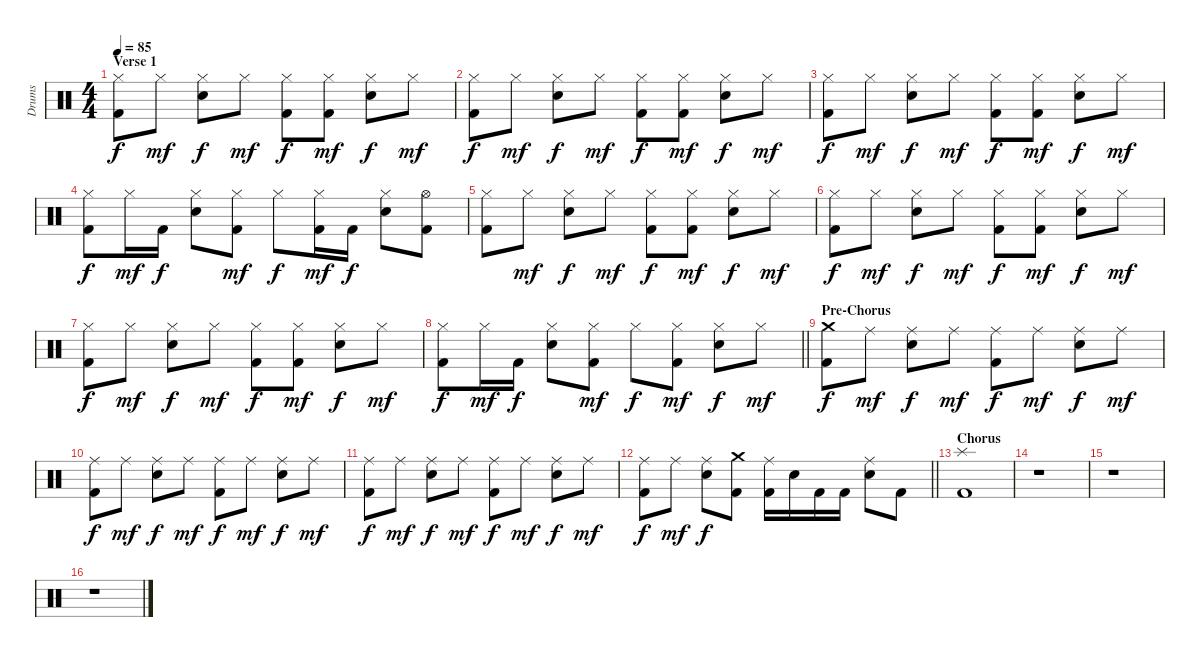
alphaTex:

\track ("Drums" "Drums") {instrument percussion}
\staff {score}
\articulation defaults
\ts (4 4)
\section ("" "Verse 1")
\tempo 85
\clef neutral
\ks c
("Hi-Hat (closed)" "Kick (hit) 2").8{dy f} "Hi-Hat (closed)".8{dy mf} ("Hi-Hat (closed)" "Snare (hit) 2").8{dy f} "Hi-Hat (closed)".8{dy mf} ("Hi-Hat (closed)" "Kick (hit) 2").8{dy f} ("Hi-Hat (closed)" "Kick (hit) 2").8{dy mf} ("Hi-Hat (closed)" "Snare (hit) 2").8{dy f} "Hi-Hat (closed)".8{dy mf} |
("Hi-Hat (closed)" "Kick (hit) 2").8{dy f} "Hi-Hat (closed)".8{dy mf} ("Hi-Hat (closed)" "Snare (hit) 2").8{dy f} "Hi-Hat (closed)".8{dy mf} ("Hi-Hat (closed)" "Kick (hit) 2").8{dy f} ("Hi-Hat (closed)" "Kick (hit) 2").8{dy mf} ("Hi-Hat (closed)" "Snare (hit) 2").8{dy f} "Hi-Hat (closed)".8{dy mf} |
("Hi-Hat (closed)" "Kick (hit) 2").8{dy f} "Hi-Hat (closed)".8{dy mf} ("Hi-Hat (closed)" "Snare (hit) 2").8{dy f} "Hi-Hat (closed)".8{dy mf} ("Hi-Hat (closed)" "Kick (hit) 2").8{dy f} ("Hi-Hat (closed)" "Kick (hit) 2").8{dy mf} ("Hi-Hat (closed)" "Snare (hit) 2").8{dy f} "Hi-Hat (closed)".8{dy mf} |
("Hi-Hat (closed)" "Kick (hit) 2").8{dy f} "Hi-Hat (closed)".16{dy mf} "Kick (hit) 2".16{dy f} ("Hi-Hat (closed)" "Snare (hit) 2").8 ("Hi-Hat (closed)" "Kick (hit) 2").8{dy mf} "Hi-Hat (closed)".8{dy f} ("Hi-Hat (closed)" "Kick (hit) 2").16{dy mf} "Kick (hit) 2".16{dy f} ("Hi-Hat (closed)" "Snare (hit) 2").8 ("Hi-Hat (open)" "Kick (hit) 2").8 |
("Hi-Hat (closed)" "Kick (hit) 2").8 "Hi-Hat (closed)".8{dy mf} ("Hi-Hat (closed)" "Snare (hit) 2").8{dy f} "Hi-Hat (closed)".8{dy mf} ("Hi-Hat (closed)" "Kick (hit) 2").8{dy f} ("Hi-Hat (closed)" "Kick (hit) 2").8{dy mf} ("Hi-Hat (closed)" "Snare (hit) 2").8{dy f} "Hi-Hat (closed)".8{dy mf} |
("Hi-Hat (closed)" "Kick (hit) 2").8{dy f} "Hi-Hat (closed)".8{dy mf} ("Hi-Hat (closed)" "Snare (hit) 2").8{dy f} "Hi-Hat (closed)".8{dy mf} ("Hi-Hat (closed)" "Kick (hit) 2").8{dy f} ("Hi-Hat (closed)" "Kick (hit) 2").8{dy mf} ("Hi-Hat (closed)" "Snare (hit) 2").8{dy f} "Hi-Hat (closed)".8{dy mf} |
("Hi-Hat (closed)" "Kick (hit) 2").8{dy f} "Hi-Hat (closed)".8{dy mf} ("Hi-Hat (closed)" "Snare (hit) 2").8{dy f} "Hi-Hat (closed)".8{dy mf} ("Hi-Hat (closed)" "Kick (hit) 2").8{dy f} ("Hi-Hat (closed)" "Kick (hit) 2").8{dy mf} ("Hi-Hat (closed)" "Snare (hit) 2").8{dy f} "Hi-Hat (closed)".8{dy mf} |
\barLineRight lightlight
("Hi-Hat (closed)" "Kick (hit) 2").8{dy f} "Hi-Hat (closed)".16{dy mf} "Kick (hit) 2".16{dy f} ("Hi-Hat (closed)" "Snare (hit) 2").8 ("Hi-Hat (closed)" "Kick (hit) 2").8{dy mf} "Hi-Hat (closed)".8{dy f} ("Hi-Hat (closed)" "Kick (hit) 2").8{dy mf} ("Hi-Hat (closed)" "Snare (hit) 2").8{dy f} "Hi-Hat (closed)".8{dy mf} |
\section ("" "Pre-Chorus")
("Crash medium (hit)" "Kick (hit) 2").8{dy f} "Ride (middle)".8{dy mf} ("Ride (middle)" "Snare (hit) 2").8{dy f} "Ride (middle)".8{dy mf} ("Ride (middle)" "Kick (hit) 2").8{dy f} "Ride (middle)".8{dy mf} ("Ride (middle)" "Snare (hit) 2").8{dy f} "Ride (middle)".8{dy mf} |
("Ride (middle)" "Kick (hit) 2").8{dy f} "Ride (middle)".8{dy mf} ("Ride (middle)" "Snare (hit) 2").8{dy f} "Ride (middle)".8{dy mf} ("Ride (middle)" "Kick (hit) 2").8{dy f} "Ride (middle)".8{dy mf} ("Ride (middle)" "Snare (hit) 2").8{dy f} "Ride (middle)".8{dy mf} |
("Ride (middle)" "Kick (hit) 2").8{dy f} "Ride (middle)".8{dy mf} ("Ride (middle)" "Snare (hit) 2").8{dy f} "Ride (middle)".8{dy mf} ("Ride (middle)" "Kick (hit) 2").8{dy f} "Ride (middle)".8{dy mf} ("Ride (middle)" "Snare (hit) 2").8{dy f} "Ride (middle)".8{dy mf} |
\barLineRight lightlight
("Ride (middle)" "Kick (hit) 2").8{dy f} "Ride (middle)".8{dy mf} ("Ride (middle)" "Snare (hit) 2").8{dy f} ("Crash medium (hit)" "Kick (hit) 2").8 ("Ride (middle)" "Kick (hit) 2").16 "Snare (hit) 2".16 "Kick (hit) 2".16 "Kick (hit) 2".16 ("Ride (middle)" "Snare (hit) 2").8 "Kick (hit) 2".8 |
\section ("" "Chorus")
("Splash (hit)" "Kick (hit) 2").1 |
r.1 |
r.1 |
r.1
